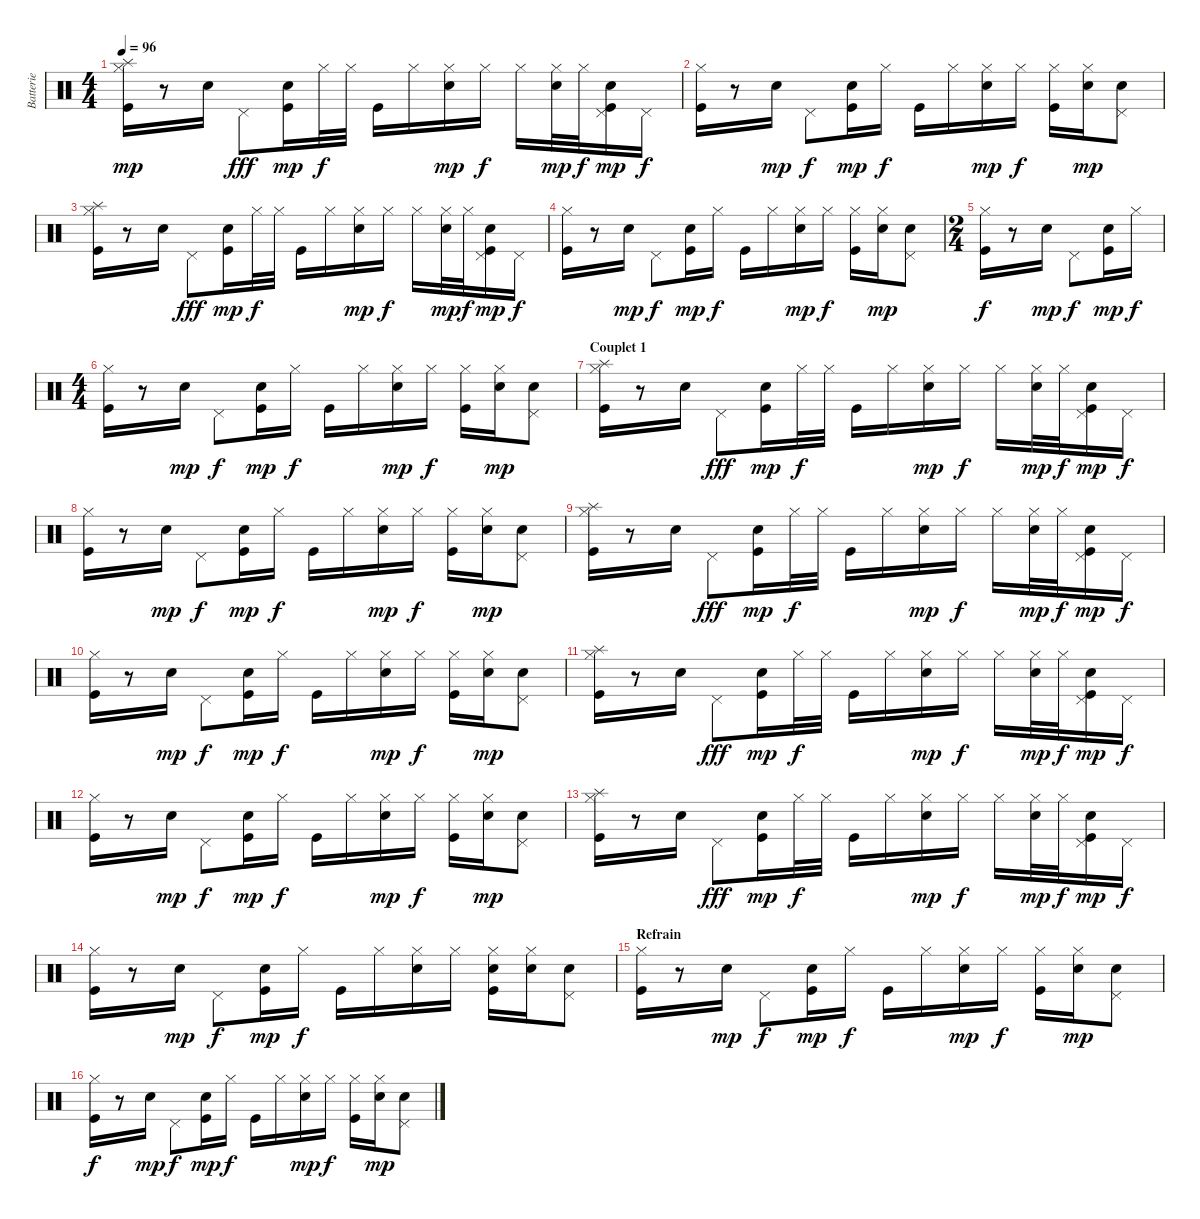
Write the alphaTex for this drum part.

\track ("Batterie" "Batterie") {instrument percussion}
\staff {score}
\articulation defaults
\ts (4 4)
\tempo 96
\clef neutral
\ks c
("Splash (hit)" "Hi-Hat (closed)" "Kick (hit)").16{dy mp} r.8 "Electric Snare (hit)".16 "Pedal Hi-Hat (hit)".8{dy fff} ("Electric Snare (hit)" "Kick (hit)").16{dy mp} "Hi-Hat (closed)".32{dy f} "Hi-Hat (closed)".32 "Kick (hit)".16 "Hi-Hat (closed)".16 ("Hi-Hat (closed)" "Electric Snare (hit)").16{dy mp} "Hi-Hat (closed)".16{dy f} "Hi-Hat (closed)".16 ("Hi-Hat (closed)" "Electric Snare (hit)").32{dy mp} "Hi-Hat (closed)".32{dy f} ("Pedal Hi-Hat (hit)" "Electric Snare (hit)" "Kick (hit)").16{dy mp} "Pedal Hi-Hat (hit)".16{dy f} |
("Hi-Hat (closed)" "Kick (hit)").16 r.8 "Electric Snare (hit)".16{dy mp} "Pedal Hi-Hat (hit)".8{dy f} ("Electric Snare (hit)" "Kick (hit)").16{dy mp} "Hi-Hat (closed)".16{dy f} "Kick (hit)".16 "Hi-Hat (closed)".16 ("Hi-Hat (closed)" "Electric Snare (hit)").16{dy mp} "Hi-Hat (closed)".16{dy f} ("Hi-Hat (closed)" "Kick (hit)").16 ("Hi-Hat (closed)" "Electric Snare (hit)").16{dy mp} ("Pedal Hi-Hat (hit)" "Electric Snare (hit)").8 |
("Splash (hit)" "Hi-Hat (closed)" "Kick (hit)").16 r.8 "Electric Snare (hit)".16 "Pedal Hi-Hat (hit)".8{dy fff} ("Electric Snare (hit)" "Kick (hit)").16{dy mp} "Hi-Hat (closed)".32{dy f} "Hi-Hat (closed)".32 "Kick (hit)".16 "Hi-Hat (closed)".16 ("Hi-Hat (closed)" "Electric Snare (hit)").16{dy mp} "Hi-Hat (closed)".16{dy f} "Hi-Hat (closed)".16 ("Hi-Hat (closed)" "Electric Snare (hit)").32{dy mp} "Hi-Hat (closed)".32{dy f} ("Pedal Hi-Hat (hit)" "Electric Snare (hit)" "Kick (hit)").16{dy mp} "Pedal Hi-Hat (hit)".16{dy f} |
("Hi-Hat (closed)" "Kick (hit)").16 r.8 "Electric Snare (hit)".16{dy mp} "Pedal Hi-Hat (hit)".8{dy f} ("Electric Snare (hit)" "Kick (hit)").16{dy mp} "Hi-Hat (closed)".16{dy f} "Kick (hit)".16 "Hi-Hat (closed)".16 ("Hi-Hat (closed)" "Electric Snare (hit)").16{dy mp} "Hi-Hat (closed)".16{dy f} ("Hi-Hat (closed)" "Kick (hit)").16 ("Hi-Hat (closed)" "Electric Snare (hit)").16{dy mp} ("Pedal Hi-Hat (hit)" "Electric Snare (hit)").8 |
\ts (2 4)
("Hi-Hat (closed)" "Kick (hit)").16{dy f} r.8 "Electric Snare (hit)".16{dy mp} "Pedal Hi-Hat (hit)".8{dy f} ("Electric Snare (hit)" "Kick (hit)").16{dy mp} "Hi-Hat (closed)".16{dy f} |
\ts (4 4)
("Hi-Hat (closed)" "Kick (hit)").16 r.8 "Electric Snare (hit)".16{dy mp} "Pedal Hi-Hat (hit)".8{dy f} ("Electric Snare (hit)" "Kick (hit)").16{dy mp} "Hi-Hat (closed)".16{dy f} "Kick (hit)".16 "Hi-Hat (closed)".16 ("Hi-Hat (closed)" "Electric Snare (hit)").16{dy mp} "Hi-Hat (closed)".16{dy f} ("Hi-Hat (closed)" "Kick (hit)").16 ("Hi-Hat (closed)" "Electric Snare (hit)").16{dy mp} ("Pedal Hi-Hat (hit)" "Electric Snare (hit)").8 |
\section ("" "Couplet 1")
("Splash (hit)" "Hi-Hat (closed)" "Kick (hit)").16 r.8 "Electric Snare (hit)".16 "Pedal Hi-Hat (hit)".8{dy fff} ("Electric Snare (hit)" "Kick (hit)").16{dy mp} "Hi-Hat (closed)".32{dy f} "Hi-Hat (closed)".32 "Kick (hit)".16 "Hi-Hat (closed)".16 ("Hi-Hat (closed)" "Electric Snare (hit)").16{dy mp} "Hi-Hat (closed)".16{dy f} "Hi-Hat (closed)".16 ("Hi-Hat (closed)" "Electric Snare (hit)").32{dy mp} "Hi-Hat (closed)".32{dy f} ("Pedal Hi-Hat (hit)" "Electric Snare (hit)" "Kick (hit)").16{dy mp} "Pedal Hi-Hat (hit)".16{dy f} |
("Hi-Hat (closed)" "Kick (hit)").16 r.8 "Electric Snare (hit)".16{dy mp} "Pedal Hi-Hat (hit)".8{dy f} ("Electric Snare (hit)" "Kick (hit)").16{dy mp} "Hi-Hat (closed)".16{dy f} "Kick (hit)".16 "Hi-Hat (closed)".16 ("Hi-Hat (closed)" "Electric Snare (hit)").16{dy mp} "Hi-Hat (closed)".16{dy f} ("Hi-Hat (closed)" "Kick (hit)").16 ("Hi-Hat (closed)" "Electric Snare (hit)").16{dy mp} ("Pedal Hi-Hat (hit)" "Electric Snare (hit)").8 |
("Splash (hit)" "Hi-Hat (closed)" "Kick (hit)").16 r.8 "Electric Snare (hit)".16 "Pedal Hi-Hat (hit)".8{dy fff} ("Electric Snare (hit)" "Kick (hit)").16{dy mp} "Hi-Hat (closed)".32{dy f} "Hi-Hat (closed)".32 "Kick (hit)".16 "Hi-Hat (closed)".16 ("Hi-Hat (closed)" "Electric Snare (hit)").16{dy mp} "Hi-Hat (closed)".16{dy f} "Hi-Hat (closed)".16 ("Hi-Hat (closed)" "Electric Snare (hit)").32{dy mp} "Hi-Hat (closed)".32{dy f} ("Pedal Hi-Hat (hit)" "Electric Snare (hit)" "Kick (hit)").16{dy mp} "Pedal Hi-Hat (hit)".16{dy f} |
("Hi-Hat (closed)" "Kick (hit)").16 r.8 "Electric Snare (hit)".16{dy mp} "Pedal Hi-Hat (hit)".8{dy f} ("Electric Snare (hit)" "Kick (hit)").16{dy mp} "Hi-Hat (closed)".16{dy f} "Kick (hit)".16 "Hi-Hat (closed)".16 ("Hi-Hat (closed)" "Electric Snare (hit)").16{dy mp} "Hi-Hat (closed)".16{dy f} ("Hi-Hat (closed)" "Kick (hit)").16 ("Hi-Hat (closed)" "Electric Snare (hit)").16{dy mp} ("Pedal Hi-Hat (hit)" "Electric Snare (hit)").8 |
("Splash (hit)" "Hi-Hat (closed)" "Kick (hit)").16 r.8 "Electric Snare (hit)".16 "Pedal Hi-Hat (hit)".8{dy fff} ("Electric Snare (hit)" "Kick (hit)").16{dy mp} "Hi-Hat (closed)".32{dy f} "Hi-Hat (closed)".32 "Kick (hit)".16 "Hi-Hat (closed)".16 ("Hi-Hat (closed)" "Electric Snare (hit)").16{dy mp} "Hi-Hat (closed)".16{dy f} "Hi-Hat (closed)".16 ("Hi-Hat (closed)" "Electric Snare (hit)").32{dy mp} "Hi-Hat (closed)".32{dy f} ("Pedal Hi-Hat (hit)" "Electric Snare (hit)" "Kick (hit)").16{dy mp} "Pedal Hi-Hat (hit)".16{dy f} |
("Hi-Hat (closed)" "Kick (hit)").16 r.8 "Electric Snare (hit)".16{dy mp} "Pedal Hi-Hat (hit)".8{dy f} ("Electric Snare (hit)" "Kick (hit)").16{dy mp} "Hi-Hat (closed)".16{dy f} "Kick (hit)".16 "Hi-Hat (closed)".16 ("Hi-Hat (closed)" "Electric Snare (hit)").16{dy mp} "Hi-Hat (closed)".16{dy f} ("Hi-Hat (closed)" "Kick (hit)").16 ("Hi-Hat (closed)" "Electric Snare (hit)").16{dy mp} ("Pedal Hi-Hat (hit)" "Electric Snare (hit)").8 |
("Splash (hit)" "Hi-Hat (closed)" "Kick (hit)").16 r.8 "Electric Snare (hit)".16 "Pedal Hi-Hat (hit)".8{dy fff} ("Electric Snare (hit)" "Kick (hit)").16{dy mp} "Hi-Hat (closed)".32{dy f} "Hi-Hat (closed)".32 "Kick (hit)".16 "Hi-Hat (closed)".16 ("Hi-Hat (closed)" "Electric Snare (hit)").16{dy mp} "Hi-Hat (closed)".16{dy f} "Hi-Hat (closed)".16 ("Hi-Hat (closed)" "Electric Snare (hit)").32{dy mp} "Hi-Hat (closed)".32{dy f} ("Pedal Hi-Hat (hit)" "Electric Snare (hit)" "Kick (hit)").16{dy mp} "Pedal Hi-Hat (hit)".16{dy f} |
("Hi-Hat (closed)" "Kick (hit)").16 r.8 "Electric Snare (hit)".16{dy mp} "Pedal Hi-Hat (hit)".8{dy f} ("Electric Snare (hit)" "Kick (hit)").16{dy mp} "Hi-Hat (closed)".16{dy f} "Kick (hit)".16 "Hi-Hat (closed)".16 ("Hi-Hat (closed)" "Electric Snare (hit)").16 "Hi-Hat (closed)".16 ("Hi-Hat (closed)" "Electric Snare (hit)" "Kick (hit)").16 ("Hi-Hat (closed)" "Electric Snare (hit)").16 ("Pedal Hi-Hat (hit)" "Electric Snare (hit)").8 |
\section ("" "Refrain")
("Hi-Hat (closed)" "Kick (hit)").16 r.8 "Electric Snare (hit)".16{dy mp} "Pedal Hi-Hat (hit)".8{dy f} ("Electric Snare (hit)" "Kick (hit)").16{dy mp} "Hi-Hat (closed)".16{dy f} "Kick (hit)".16 "Hi-Hat (closed)".16 ("Hi-Hat (closed)" "Electric Snare (hit)").16{dy mp} "Hi-Hat (closed)".16{dy f} ("Hi-Hat (closed)" "Kick (hit)").16 ("Hi-Hat (closed)" "Electric Snare (hit)").16{dy mp} ("Pedal Hi-Hat (hit)" "Electric Snare (hit)").8 |
("Hi-Hat (closed)" "Kick (hit)").16{dy f} r.8 "Electric Snare (hit)".16{dy mp} "Pedal Hi-Hat (hit)".8{dy f} ("Electric Snare (hit)" "Kick (hit)").16{dy mp} "Hi-Hat (closed)".16{dy f} "Kick (hit)".16 "Hi-Hat (closed)".16 ("Hi-Hat (closed)" "Electric Snare (hit)").16{dy mp} "Hi-Hat (closed)".16{dy f} ("Hi-Hat (closed)" "Kick (hit)").16 ("Hi-Hat (closed)" "Electric Snare (hit)").16{dy mp} ("Pedal Hi-Hat (hit)" "Electric Snare (hit)").8
